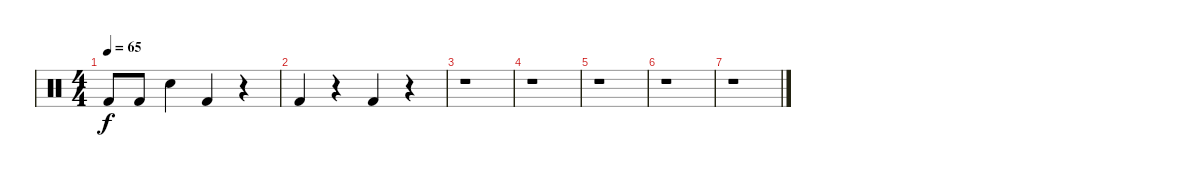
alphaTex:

\track "" {instrument percussion}
\staff {score}
\articulation defaults
\ts (4 4)
\tempo 65
\clef neutral
\ks c "Kick (hit) 2".8{dy f} "Kick (hit) 2".8 "Snare (hit) 2".4 "Kick (hit) 2".4
r.4 |
"Kick (hit) 2".4 r.4 "Kick (hit) 2".4 r.4 |
r.1 |
r.1 |
r.1 |
r.1 |
r.1
